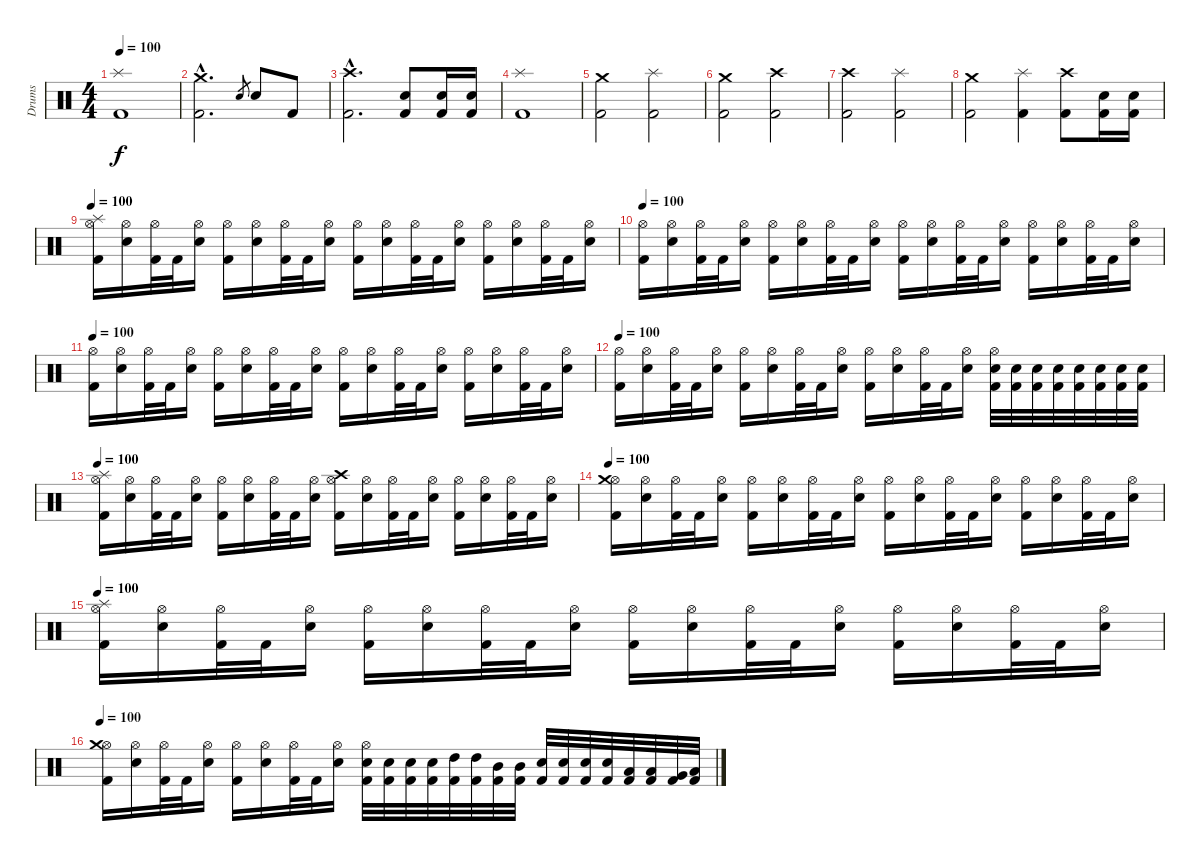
\track ("Drums" "Drums") {instrument percussion}
\staff {score}
\articulation defaults
\ts (4 4)
\tempo 100
\tempo 120
\tempo 100
\clef neutral
\ks c
("Kick (hit) 2" "Splash (hit)").1{dy f} |
("Kick (hit) 2"{hac} "Crash medium (hit)"{hac}).2{d} "Snare (hit) 2".8{gr} "Snare (hit) 2".8 "Kick (hit) 2".8 |
("Kick (hit) 2"{hac} "Crash high (hit)"{hac}).2{d} ("Kick (hit) 2" "Snare (hit) 2").8 ("Kick (hit) 2" "Snare (hit) 2").16 ("Kick (hit) 2" "Snare (hit) 2").16 |
("Kick (hit) 2" "Splash (hit)").1 |
("Kick (hit) 2" "Crash medium (hit)").2 ("Kick (hit) 2" "Splash (hit)").2 |
("Kick (hit) 2" "Crash medium (hit)").2 ("Kick (hit) 2" "Crash high (hit)").2 |
("Kick (hit) 2" "Crash high (hit)").2 ("Kick (hit) 2" "Splash (hit)").2 |
("Kick (hit) 2" "Crash medium (hit)").2 ("Kick (hit) 2" "Splash (hit)").4 ("Kick (hit) 2" "Crash high (hit)").8 ("Kick (hit) 2" "Snare (hit) 2").16 ("Kick (hit) 2" "Snare (hit) 2").16 |
\section ("" "")
\tempo 100
("Kick (hit) 2" "Hi-Hat (open)" "Splash (hit)").16 ("Snare (hit) 2" "Hi-Hat (open)").16 ("Kick (hit) 2" "Hi-Hat (open)").32 "Kick (hit) 2".32 ("Snare (hit) 2" "Hi-Hat (open)").16 ("Kick (hit) 2" "Hi-Hat (open)").16 ("Snare (hit) 2" "Hi-Hat (open)").16 ("Kick (hit) 2" "Hi-Hat (open)").32 "Kick (hit) 2".32 ("Snare (hit) 2" "Hi-Hat (open)").16 ("Kick (hit) 2" "Hi-Hat (open)").16 ("Snare (hit) 2" "Hi-Hat (open)").16 ("Kick (hit) 2" "Hi-Hat (open)").32 "Kick (hit) 2".32 ("Snare (hit) 2" "Hi-Hat (open)").16 ("Kick (hit) 2" "Hi-Hat (open)").16 ("Snare (hit) 2" "Hi-Hat (open)").16 ("Kick (hit) 2" "Hi-Hat (open)").32 "Kick (hit) 2".32 ("Snare (hit) 2" "Hi-Hat (open)").16 |
\tempo 100
("Kick (hit) 2" "Hi-Hat (open)").16 ("Snare (hit) 2" "Hi-Hat (open)").16 ("Kick (hit) 2" "Hi-Hat (open)").32 "Kick (hit) 2".32 ("Snare (hit) 2" "Hi-Hat (open)").16 ("Kick (hit) 2" "Hi-Hat (open)").16 ("Snare (hit) 2" "Hi-Hat (open)").16 ("Kick (hit) 2" "Hi-Hat (open)").32 "Kick (hit) 2".32 ("Snare (hit) 2" "Hi-Hat (open)").16 ("Kick (hit) 2" "Hi-Hat (open)").16 ("Snare (hit) 2" "Hi-Hat (open)").16 ("Kick (hit) 2" "Hi-Hat (open)").32 "Kick (hit) 2".32 ("Snare (hit) 2" "Hi-Hat (open)").16 ("Kick (hit) 2" "Hi-Hat (open)").16 ("Snare (hit) 2" "Hi-Hat (open)").16 ("Kick (hit) 2" "Hi-Hat (open)").32 "Kick (hit) 2".32 ("Snare (hit) 2" "Hi-Hat (open)").16 |
\tempo 100
("Kick (hit) 2" "Hi-Hat (open)").16 ("Snare (hit) 2" "Hi-Hat (open)").16 ("Kick (hit) 2" "Hi-Hat (open)").32 "Kick (hit) 2".32 ("Snare (hit) 2" "Hi-Hat (open)").16 ("Kick (hit) 2" "Hi-Hat (open)").16 ("Snare (hit) 2" "Hi-Hat (open)").16 ("Kick (hit) 2" "Hi-Hat (open)").32 "Kick (hit) 2".32 ("Snare (hit) 2" "Hi-Hat (open)").16 ("Kick (hit) 2" "Hi-Hat (open)").16 ("Snare (hit) 2" "Hi-Hat (open)").16 ("Kick (hit) 2" "Hi-Hat (open)").32 "Kick (hit) 2".32 ("Snare (hit) 2" "Hi-Hat (open)").16 ("Kick (hit) 2" "Hi-Hat (open)").16 ("Snare (hit) 2" "Hi-Hat (open)").16 ("Kick (hit) 2" "Hi-Hat (open)").32 "Kick (hit) 2".32 ("Snare (hit) 2" "Hi-Hat (open)").16 |
\tempo 100
("Kick (hit) 2" "Hi-Hat (open)").16 ("Snare (hit) 2" "Hi-Hat (open)").16 ("Kick (hit) 2" "Hi-Hat (open)").32 "Kick (hit) 2".32 ("Snare (hit) 2" "Hi-Hat (open)").16 ("Kick (hit) 2" "Hi-Hat (open)").16 ("Snare (hit) 2" "Hi-Hat (open)").16 ("Kick (hit) 2" "Hi-Hat (open)").32 "Kick (hit) 2".32 ("Snare (hit) 2" "Hi-Hat (open)").16 ("Kick (hit) 2" "Hi-Hat (open)").16 ("Snare (hit) 2" "Hi-Hat (open)").16 ("Kick (hit) 2" "Hi-Hat (open)").32 "Kick (hit) 2".32 ("Snare (hit) 2" "Hi-Hat (open)").16 ("Kick (hit) 2" "Snare (hit) 2" "Hi-Hat (open)").32 ("Kick (hit) 2" "Snare (hit) 2").32 ("Kick (hit) 2" "Snare (hit) 2").32 ("Kick (hit) 2" "Snare (hit) 2").32 ("Kick (hit) 2" "Snare (hit) 2").32 ("Kick (hit) 2" "Snare (hit) 2").32 ("Kick (hit) 2" "Snare (hit) 2").32 ("Kick (hit) 2" "Snare (hit) 2").32 |
\tempo 100
("Kick (hit) 2" "Hi-Hat (open)" "Splash (hit)").16 ("Snare (hit) 2" "Hi-Hat (open)").16 ("Kick (hit) 2" "Hi-Hat (open)").32 "Kick (hit) 2".32 ("Snare (hit) 2" "Hi-Hat (open)").16 ("Kick (hit) 2" "Hi-Hat (open)").16 ("Snare (hit) 2" "Hi-Hat (open)").16 ("Kick (hit) 2" "Hi-Hat (open)").32 "Kick (hit) 2".32 ("Snare (hit) 2" "Hi-Hat (open)").16 ("Kick (hit) 2" "Hi-Hat (open)" "Crash high (hit)").16 ("Snare (hit) 2" "Hi-Hat (open)").16 ("Kick (hit) 2" "Hi-Hat (open)").32 "Kick (hit) 2".32 ("Snare (hit) 2" "Hi-Hat (open)").16 ("Kick (hit) 2" "Hi-Hat (open)").16 ("Snare (hit) 2" "Hi-Hat (open)").16 ("Kick (hit) 2" "Hi-Hat (open)").32 "Kick (hit) 2".32 ("Snare (hit) 2" "Hi-Hat (open)").16 |
\tempo 100
("Kick (hit) 2" "Hi-Hat (open)" "Crash medium (hit)").16 ("Snare (hit) 2" "Hi-Hat (open)").16 ("Kick (hit) 2" "Hi-Hat (open)").32 "Kick (hit) 2".32 ("Snare (hit) 2" "Hi-Hat (open)").16 ("Kick (hit) 2" "Hi-Hat (open)").16 ("Snare (hit) 2" "Hi-Hat (open)").16 ("Kick (hit) 2" "Hi-Hat (open)").32 "Kick (hit) 2".32 ("Snare (hit) 2" "Hi-Hat (open)").16 ("Kick (hit) 2" "Hi-Hat (open)").16 ("Snare (hit) 2" "Hi-Hat (open)").16 ("Kick (hit) 2" "Hi-Hat (open)").32 "Kick (hit) 2".32 ("Snare (hit) 2" "Hi-Hat (open)").16 ("Kick (hit) 2" "Hi-Hat (open)").16 ("Snare (hit) 2" "Hi-Hat (open)").16 ("Kick (hit) 2" "Hi-Hat (open)").32 "Kick (hit) 2".32 ("Snare (hit) 2" "Hi-Hat (open)").16 |
\tempo 100
("Kick (hit) 2" "Hi-Hat (open)" "Splash (hit)").16 ("Snare (hit) 2" "Hi-Hat (open)").16 ("Kick (hit) 2" "Hi-Hat (open)").32 "Kick (hit) 2".32 ("Snare (hit) 2" "Hi-Hat (open)").16 ("Kick (hit) 2" "Hi-Hat (open)").16 ("Snare (hit) 2" "Hi-Hat (open)").16 ("Kick (hit) 2" "Hi-Hat (open)").32 "Kick (hit) 2".32 ("Snare (hit) 2" "Hi-Hat (open)").16 ("Kick (hit) 2" "Hi-Hat (open)").16 ("Snare (hit) 2" "Hi-Hat (open)").16 ("Kick (hit) 2" "Hi-Hat (open)").32 "Kick (hit) 2".32 ("Snare (hit) 2" "Hi-Hat (open)").16 ("Kick (hit) 2" "Hi-Hat (open)").16 ("Snare (hit) 2" "Hi-Hat (open)").16 ("Kick (hit) 2" "Hi-Hat (open)").32 "Kick (hit) 2".32 ("Snare (hit) 2" "Hi-Hat (open)").16 |
\tempo 100
("Kick (hit) 2" "Hi-Hat (open)" "Crash medium (hit)").16 ("Snare (hit) 2" "Hi-Hat (open)").16 ("Kick (hit) 2" "Hi-Hat (open)").32 "Kick (hit) 2".32 ("Snare (hit) 2" "Hi-Hat (open)").16 ("Kick (hit) 2" "Hi-Hat (open)").16 ("Snare (hit) 2" "Hi-Hat (open)").16 ("Kick (hit) 2" "Hi-Hat (open)").32 "Kick (hit) 2".32 ("Snare (hit) 2" "Hi-Hat (open)").16 ("Kick (hit) 2" "Snare (hit) 2" "Hi-Hat (open)").32 ("Kick (hit) 2" "Snare (hit) 2").32 ("Kick (hit) 2" "Snare (hit) 2").32 ("Kick (hit) 2" "Snare (hit) 2").32 ("Kick (hit) 2" "High Tom (hit)").32 ("Kick (hit) 2" "High Tom (hit)").32 ("Kick (hit) 2" "Mid Tom (hit)").32 ("Kick (hit) 2" "Mid Tom (hit)").32 ("Kick (hit) 2" "Snare (hit) 2").32 ("Kick (hit) 2" "Snare (hit) 2").32 ("Kick (hit) 2" "Snare (hit) 2").32 ("Kick (hit) 2" "Snare (hit) 2").32 ("Kick (hit) 2" "Low Tom (hit)").32 ("Kick (hit) 2" "Low Tom (hit)").32 ("Kick (hit) 2" "Very Low Tom (hit)").32 ("Kick (hit) 2" "Low Floor Tom (hit)").32
